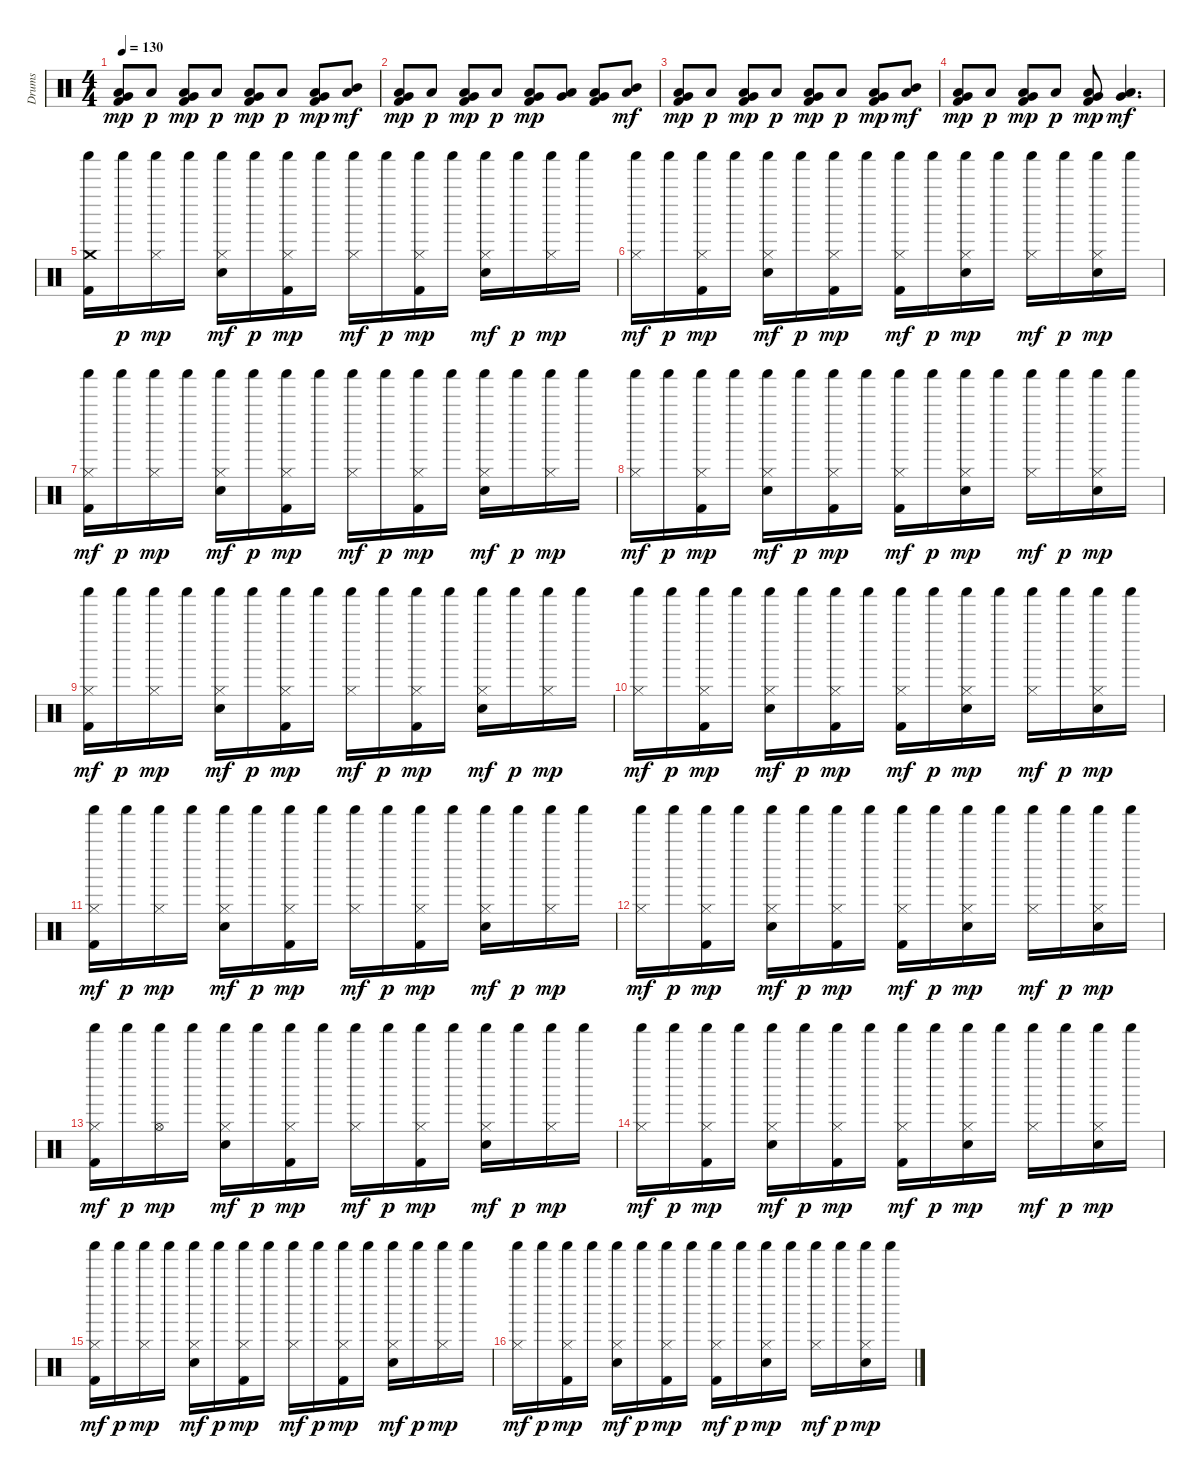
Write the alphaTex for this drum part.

\track ("Drums" "Drums") {instrument percussion}
\staff {score}
\articulation defaults
\ts (4 4)
\tempo 130
\clef neutral
\ks c
("Kick (hit) 2" "Low Floor Tom (hit)" "Very Low Tom (hit)").8{dy mp} "Low Floor Tom (hit)".8{dy p} ("Kick (hit) 2" "Low Floor Tom (hit)" "Very Low Tom (hit)").8{dy mp} "Low Floor Tom (hit)".8{dy p} ("Kick (hit) 2" "Low Floor Tom (hit)" "Very Low Tom (hit)").8{dy mp} "Low Floor Tom (hit)".8{dy p} ("Kick (hit) 2" "Low Floor Tom (hit)" "Very Low Tom (hit)").8{dy mp} ("Low Tom (hit)" "Mid Tom (hit)").8{dy mf} |
("Kick (hit) 2" "Low Floor Tom (hit)" "Very Low Tom (hit)").8{dy mp} "Low Floor Tom (hit)".8{dy p} ("Kick (hit) 2" "Low Floor Tom (hit)" "Very Low Tom (hit)").8{dy mp} "Low Floor Tom (hit)".8{dy p} ("Kick (hit) 2" "Low Floor Tom (hit)" "Very Low Tom (hit)").8{dy mp} ("Low Floor Tom (hit)" "Very Low Tom (hit)").8 ("Kick (hit) 2" "Low Floor Tom (hit)" "Very Low Tom (hit)").8 ("Low Tom (hit)" "Mid Tom (hit)").8{dy mf} |
("Kick (hit) 2" "Low Floor Tom (hit)" "Very Low Tom (hit)").8{dy mp} "Low Floor Tom (hit)".8{dy p} ("Kick (hit) 2" "Low Floor Tom (hit)" "Very Low Tom (hit)").8{dy mp} "Low Floor Tom (hit)".8{dy p} ("Kick (hit) 2" "Low Floor Tom (hit)" "Very Low Tom (hit)").8{dy mp} "Low Floor Tom (hit)".8{dy p} ("Kick (hit) 2" "Low Floor Tom (hit)" "Very Low Tom (hit)").8{dy mp} ("Low Tom (hit)" "Mid Tom (hit)").8{dy mf} |
("Kick (hit) 2" "Low Floor Tom (hit)" "Very Low Tom (hit)").8{dy mp} "Low Floor Tom (hit)".8{dy p} ("Kick (hit) 2" "Low Floor Tom (hit)" "Very Low Tom (hit)").8{dy mp} "Low Floor Tom (hit)".8{dy p} ("Kick (hit) 2" "Low Floor Tom (hit)" "Very Low Tom (hit)").8{dy mp} ("Low Floor Tom (hit)" "Very Low Tom (hit)").4{d dy mf} |
("Kick (hit) 2" "Crash medium (hit)" "Shaker (hit)").16 "Shaker (hit)".16{dy p} ("Hi-Hat (closed)" "Shaker (hit)").16{dy mp} "Shaker (hit)".16 ("Snare (hit) 2" "Hi-Hat (closed)" "Shaker (hit)").16{dy mf} "Shaker (hit)".16{dy p} ("Kick (hit) 2" "Hi-Hat (closed)" "Shaker (hit)").16{dy mp} "Shaker (hit)".16 ("Hi-Hat (closed)" "Shaker (hit)").16{dy mf} "Shaker (hit)".16{dy p} ("Kick (hit) 2" "Hi-Hat (closed)" "Shaker (hit)").16{dy mp} "Shaker (hit)".16 ("Snare (hit) 2" "Hi-Hat (closed)" "Shaker (hit)").16{dy mf} "Shaker (hit)".16{dy p} ("Hi-Hat (closed)" "Shaker (hit)").16{dy mp} "Shaker (hit)".16 |
("Hi-Hat (closed)" "Shaker (hit)").16{dy mf} "Shaker (hit)".16{dy p} ("Kick (hit) 2" "Hi-Hat (closed)" "Shaker (hit)").16{dy mp} "Shaker (hit)".16 ("Snare (hit) 2" "Hi-Hat (closed)" "Shaker (hit)").16{dy mf} "Shaker (hit)".16{dy p} ("Kick (hit) 2" "Hi-Hat (closed)" "Shaker (hit)").16{dy mp} "Shaker (hit)".16 ("Kick (hit) 2" "Hi-Hat (closed)" "Shaker (hit)").16{dy mf} "Shaker (hit)".16{dy p} ("Snare (hit) 2" "Hi-Hat (closed)" "Shaker (hit)").16{dy mp} "Shaker (hit)".16 ("Hi-Hat (closed)" "Shaker (hit)").16{dy mf} "Shaker (hit)".16{dy p} ("Snare (hit) 2" "Hi-Hat (closed)" "Shaker (hit)").16{dy mp} "Shaker (hit)".16 |
("Kick (hit) 2" "Hi-Hat (closed)" "Shaker (hit)").16{dy mf} "Shaker (hit)".16{dy p} ("Hi-Hat (closed)" "Shaker (hit)").16{dy mp} "Shaker (hit)".16 ("Snare (hit) 2" "Hi-Hat (closed)" "Shaker (hit)").16{dy mf} "Shaker (hit)".16{dy p} ("Kick (hit) 2" "Hi-Hat (closed)" "Shaker (hit)").16{dy mp} "Shaker (hit)".16 ("Hi-Hat (closed)" "Shaker (hit)").16{dy mf} "Shaker (hit)".16{dy p} ("Kick (hit) 2" "Hi-Hat (closed)" "Shaker (hit)").16{dy mp} "Shaker (hit)".16 ("Snare (hit) 2" "Hi-Hat (closed)" "Shaker (hit)").16{dy mf} "Shaker (hit)".16{dy p} ("Hi-Hat (closed)" "Shaker (hit)").16{dy mp} "Shaker (hit)".16 |
("Hi-Hat (closed)" "Shaker (hit)").16{dy mf} "Shaker (hit)".16{dy p} ("Kick (hit) 2" "Hi-Hat (closed)" "Shaker (hit)").16{dy mp} "Shaker (hit)".16 ("Snare (hit) 2" "Hi-Hat (closed)" "Shaker (hit)").16{dy mf} "Shaker (hit)".16{dy p} ("Kick (hit) 2" "Hi-Hat (closed)" "Shaker (hit)").16{dy mp} "Shaker (hit)".16 ("Kick (hit) 2" "Hi-Hat (closed)" "Shaker (hit)").16{dy mf} "Shaker (hit)".16{dy p} ("Snare (hit) 2" "Hi-Hat (closed)" "Shaker (hit)").16{dy mp} "Shaker (hit)".16 ("Hi-Hat (closed)" "Shaker (hit)").16{dy mf} "Shaker (hit)".16{dy p} ("Snare (hit) 2" "Hi-Hat (closed)" "Shaker (hit)").16{dy mp} "Shaker (hit)".16 |
("Kick (hit) 2" "Hi-Hat (closed)" "Shaker (hit)").16{dy mf} "Shaker (hit)".16{dy p} ("Hi-Hat (closed)" "Shaker (hit)").16{dy mp} "Shaker (hit)".16 ("Snare (hit) 2" "Hi-Hat (closed)" "Shaker (hit)").16{dy mf} "Shaker (hit)".16{dy p} ("Kick (hit) 2" "Hi-Hat (closed)" "Shaker (hit)").16{dy mp} "Shaker (hit)".16 ("Hi-Hat (closed)" "Shaker (hit)").16{dy mf} "Shaker (hit)".16{dy p} ("Kick (hit) 2" "Hi-Hat (closed)" "Shaker (hit)").16{dy mp} "Shaker (hit)".16 ("Snare (hit) 2" "Hi-Hat (closed)" "Shaker (hit)").16{dy mf} "Shaker (hit)".16{dy p} ("Hi-Hat (closed)" "Shaker (hit)").16{dy mp} "Shaker (hit)".16 |
("Hi-Hat (closed)" "Shaker (hit)").16{dy mf} "Shaker (hit)".16{dy p} ("Kick (hit) 2" "Hi-Hat (closed)" "Shaker (hit)").16{dy mp} "Shaker (hit)".16 ("Snare (hit) 2" "Hi-Hat (closed)" "Shaker (hit)").16{dy mf} "Shaker (hit)".16{dy p} ("Kick (hit) 2" "Hi-Hat (closed)" "Shaker (hit)").16{dy mp} "Shaker (hit)".16 ("Kick (hit) 2" "Hi-Hat (closed)" "Shaker (hit)").16{dy mf} "Shaker (hit)".16{dy p} ("Snare (hit) 2" "Hi-Hat (closed)" "Shaker (hit)").16{dy mp} "Shaker (hit)".16 ("Hi-Hat (closed)" "Shaker (hit)").16{dy mf} "Shaker (hit)".16{dy p} ("Snare (hit) 2" "Hi-Hat (closed)" "Shaker (hit)").16{dy mp} "Shaker (hit)".16 |
("Kick (hit) 2" "Hi-Hat (closed)" "Shaker (hit)").16{dy mf} "Shaker (hit)".16{dy p} ("Hi-Hat (closed)" "Shaker (hit)").16{dy mp} "Shaker (hit)".16 ("Snare (hit) 2" "Hi-Hat (closed)" "Shaker (hit)").16{dy mf} "Shaker (hit)".16{dy p} ("Kick (hit) 2" "Hi-Hat (closed)" "Shaker (hit)").16{dy mp} "Shaker (hit)".16 ("Hi-Hat (closed)" "Shaker (hit)").16{dy mf} "Shaker (hit)".16{dy p} ("Kick (hit) 2" "Hi-Hat (closed)" "Shaker (hit)").16{dy mp} "Shaker (hit)".16 ("Snare (hit) 2" "Hi-Hat (closed)" "Shaker (hit)").16{dy mf} "Shaker (hit)".16{dy p} ("Hi-Hat (closed)" "Shaker (hit)").16{dy mp} "Shaker (hit)".16 |
("Hi-Hat (closed)" "Shaker (hit)").16{dy mf} "Shaker (hit)".16{dy p} ("Kick (hit) 2" "Hi-Hat (closed)" "Shaker (hit)").16{dy mp} "Shaker (hit)".16 ("Snare (hit) 2" "Hi-Hat (closed)" "Shaker (hit)").16{dy mf} "Shaker (hit)".16{dy p} ("Kick (hit) 2" "Hi-Hat (closed)" "Shaker (hit)").16{dy mp} "Shaker (hit)".16 ("Kick (hit) 2" "Hi-Hat (closed)" "Shaker (hit)").16{dy mf} "Shaker (hit)".16{dy p} ("Snare (hit) 2" "Hi-Hat (closed)" "Shaker (hit)").16{dy mp} "Shaker (hit)".16 ("Hi-Hat (closed)" "Shaker (hit)").16{dy mf} "Shaker (hit)".16{dy p} ("Snare (hit) 2" "Hi-Hat (closed)" "Shaker (hit)").16{dy mp} "Shaker (hit)".16 |
("Kick (hit) 2" "Hi-Hat (closed)" "Shaker (hit)").16{dy mf} "Shaker (hit)".16{dy p} ("Hi-Hat (open)" "Shaker (hit)").16{dy mp} "Shaker (hit)".16 ("Snare (hit) 2" "Hi-Hat (closed)" "Shaker (hit)").16{dy mf} "Shaker (hit)".16{dy p} ("Kick (hit) 2" "Hi-Hat (closed)" "Shaker (hit)").16{dy mp} "Shaker (hit)".16 ("Hi-Hat (closed)" "Shaker (hit)").16{dy mf} "Shaker (hit)".16{dy p} ("Kick (hit) 2" "Hi-Hat (closed)" "Shaker (hit)").16{dy mp} "Shaker (hit)".16 ("Snare (hit) 2" "Hi-Hat (closed)" "Shaker (hit)").16{dy mf} "Shaker (hit)".16{dy p} ("Hi-Hat (closed)" "Shaker (hit)").16{dy mp} "Shaker (hit)".16 |
("Hi-Hat (closed)" "Shaker (hit)").16{dy mf} "Shaker (hit)".16{dy p} ("Kick (hit) 2" "Hi-Hat (closed)" "Shaker (hit)").16{dy mp} "Shaker (hit)".16 ("Snare (hit) 2" "Hi-Hat (closed)" "Shaker (hit)").16{dy mf} "Shaker (hit)".16{dy p} ("Kick (hit) 2" "Hi-Hat (closed)" "Shaker (hit)").16{dy mp} "Shaker (hit)".16 ("Kick (hit) 2" "Hi-Hat (closed)" "Shaker (hit)").16{dy mf} "Shaker (hit)".16{dy p} ("Snare (hit) 2" "Hi-Hat (closed)" "Shaker (hit)").16{dy mp} "Shaker (hit)".16 ("Hi-Hat (closed)" "Shaker (hit)").16{dy mf} "Shaker (hit)".16{dy p} ("Snare (hit) 2" "Hi-Hat (closed)" "Shaker (hit)").16{dy mp} "Shaker (hit)".16 |
("Kick (hit) 2" "Hi-Hat (closed)" "Shaker (hit)").16{dy mf} "Shaker (hit)".16{dy p} ("Hi-Hat (closed)" "Shaker (hit)").16{dy mp} "Shaker (hit)".16 ("Snare (hit) 2" "Hi-Hat (closed)" "Shaker (hit)").16{dy mf} "Shaker (hit)".16{dy p} ("Kick (hit) 2" "Hi-Hat (closed)" "Shaker (hit)").16{dy mp} "Shaker (hit)".16 ("Hi-Hat (closed)" "Shaker (hit)").16{dy mf} "Shaker (hit)".16{dy p} ("Kick (hit) 2" "Hi-Hat (closed)" "Shaker (hit)").16{dy mp} "Shaker (hit)".16 ("Snare (hit) 2" "Hi-Hat (closed)" "Shaker (hit)").16{dy mf} "Shaker (hit)".16{dy p} ("Hi-Hat (closed)" "Shaker (hit)").16{dy mp} "Shaker (hit)".16 |
("Hi-Hat (closed)" "Shaker (hit)").16{dy mf} "Shaker (hit)".16{dy p} ("Kick (hit) 2" "Hi-Hat (closed)" "Shaker (hit)").16{dy mp} "Shaker (hit)".16 ("Snare (hit) 2" "Hi-Hat (closed)" "Shaker (hit)").16{dy mf} "Shaker (hit)".16{dy p} ("Kick (hit) 2" "Hi-Hat (closed)" "Shaker (hit)").16{dy mp} "Shaker (hit)".16 ("Kick (hit) 2" "Hi-Hat (closed)" "Shaker (hit)").16{dy mf} "Shaker (hit)".16{dy p} ("Snare (hit) 2" "Hi-Hat (closed)" "Shaker (hit)").16{dy mp} "Shaker (hit)".16 ("Hi-Hat (closed)" "Shaker (hit)").16{dy mf} "Shaker (hit)".16{dy p} ("Snare (hit) 2" "Hi-Hat (closed)" "Shaker (hit)").16{dy mp} "Shaker (hit)".16
